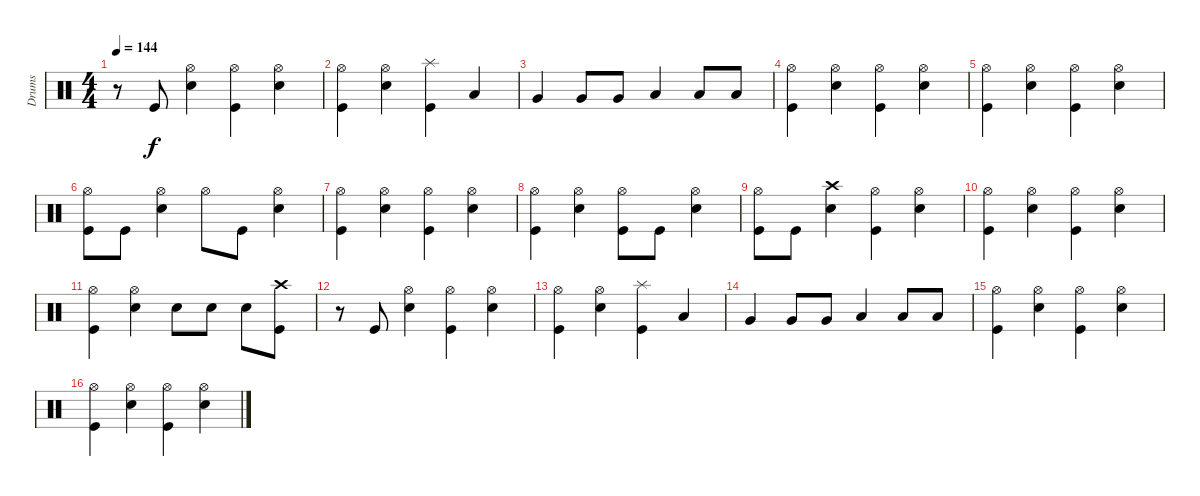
\track ("Drums" "Drums") {instrument percussion}
\staff {score}
\articulation defaults
\ts (4 4)
\tempo 144
\clef neutral
\ks c
r.8{dy f} "Kick (hit)".8 ("Hi-Hat (open)" "Snare (hit) 2").4 ("Hi-Hat (open)" "Kick (hit)").4 ("Hi-Hat (open)" "Snare (hit) 2").4 |
("Hi-Hat (open)" "Kick (hit)").4 ("Hi-Hat (open)" "Snare (hit) 2").4 ("Splash (hit)" "Kick (hit)").4 "Low Tom (hit)".4 |
"Very Low Tom (hit)".4 "Very Low Tom (hit)".8 "Very Low Tom (hit)".8 "Low Floor Tom (hit)".4 "Low Floor Tom (hit)".8 "Low Floor Tom (hit)".8 |
("Hi-Hat (open)" "Kick (hit)").4 ("Hi-Hat (open)" "Snare (hit) 2").4 ("Hi-Hat (open)" "Kick (hit)").4 ("Hi-Hat (open)" "Snare (hit) 2").4 |
("Hi-Hat (open)" "Kick (hit)").4 ("Hi-Hat (open)" "Snare (hit) 2").4 ("Hi-Hat (open)" "Kick (hit)").4 ("Hi-Hat (open)" "Snare (hit) 2").4 |
("Hi-Hat (open)" "Kick (hit)").8 "Kick (hit)".8 ("Hi-Hat (open)" "Snare (hit) 2").4 "Hi-Hat (open)".8 "Kick (hit)".8 ("Hi-Hat (open)" "Snare (hit) 2").4 |
("Hi-Hat (open)" "Kick (hit)").4 ("Hi-Hat (open)" "Snare (hit) 2").4 ("Hi-Hat (open)" "Kick (hit)").4 ("Hi-Hat (open)" "Snare (hit) 2").4 |
("Hi-Hat (open)" "Kick (hit)").4 ("Hi-Hat (open)" "Snare (hit) 2").4 ("Hi-Hat (open)" "Kick (hit)").8 "Kick (hit)".8 ("Hi-Hat (open)" "Snare (hit) 2").4 |
("Hi-Hat (open)" "Kick (hit)").8 "Kick (hit)".8 ("Crash high (hit)" "Snare (hit) 2").4 ("Hi-Hat (open)" "Kick (hit)").4 ("Hi-Hat (open)" "Snare (hit) 2").4 |
("Hi-Hat (open)" "Kick (hit)").4 ("Hi-Hat (open)" "Snare (hit) 2").4 ("Hi-Hat (open)" "Kick (hit)").4 ("Hi-Hat (open)" "Snare (hit) 2").4 |
("Hi-Hat (open)" "Kick (hit)").4 ("Hi-Hat (open)" "Snare (hit) 2").4 "Snare (hit) 2".8 "Snare (hit) 2".8 "Snare (hit) 2".8 ("Crash high (hit)" "Kick (hit)").8 |
r.8 "Kick (hit)".8 ("Hi-Hat (open)" "Snare (hit) 2").4 ("Hi-Hat (open)" "Kick (hit)").4 ("Hi-Hat (open)" "Snare (hit) 2").4 |
("Hi-Hat (open)" "Kick (hit)").4 ("Hi-Hat (open)" "Snare (hit) 2").4 ("Splash (hit)" "Kick (hit)").4 "Low Tom (hit)".4 |
"Very Low Tom (hit)".4 "Very Low Tom (hit)".8 "Very Low Tom (hit)".8 "Low Floor Tom (hit)".4 "Low Floor Tom (hit)".8 "Low Floor Tom (hit)".8 |
("Hi-Hat (open)" "Kick (hit)").4 ("Hi-Hat (open)" "Snare (hit) 2").4 ("Hi-Hat (open)" "Kick (hit)").4 ("Hi-Hat (open)" "Snare (hit) 2").4 |
("Hi-Hat (open)" "Kick (hit)").4 ("Hi-Hat (open)" "Snare (hit) 2").4 ("Hi-Hat (open)" "Kick (hit)").4 ("Hi-Hat (open)" "Snare (hit) 2").4
